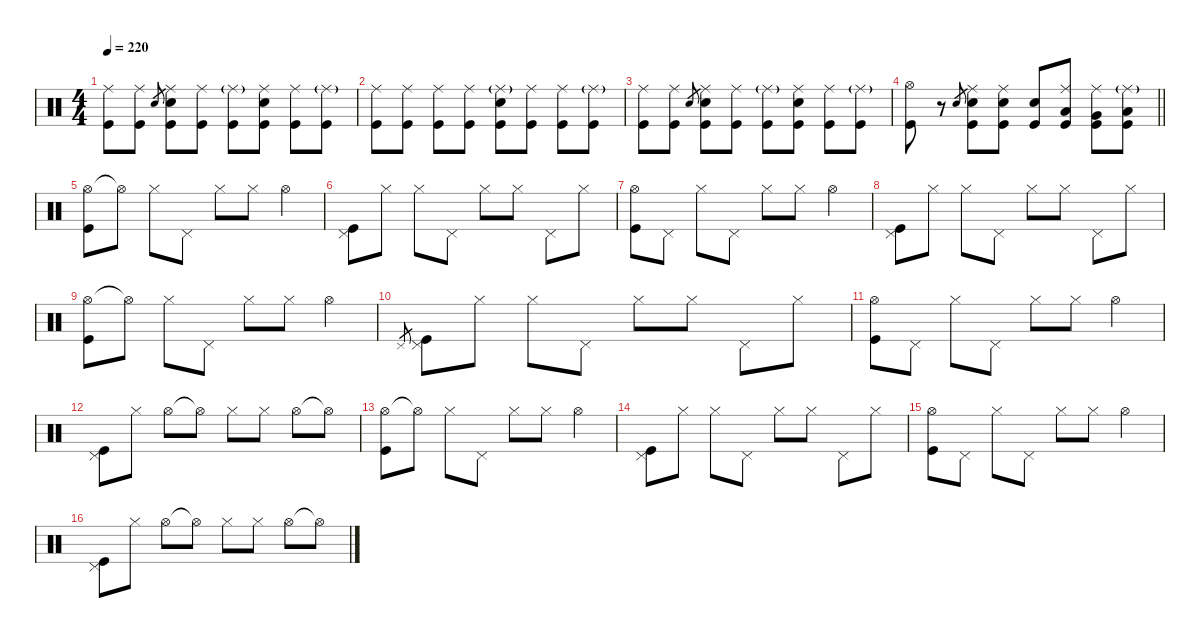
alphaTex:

\defaultSystemsLayout 4
\hideDynamics
\bracketExtendMode nobrackets
\singleTrackTrackNamePolicy hidden
\multiTrackTrackNamePolicy hidden
\firstSystemTrackNameMode fullname
\firstSystemTrackNameOrientation horizontal
\otherSystemsTrackNameOrientation horizontal
\track ("Drums" "drm.") {instrument percussion}
\staff {score}
\articulation defaults
\ts (4 4)
\tempo 220
\clef neutral
\ks c
("Ride (middle)" "Kick (hit)").8{dy mf beam Down} ("Ride (middle)" "Kick (hit)").8{beam Down} "Electric Snare (hit)".8{gr dy mp beam Up} ("Ride (middle)" "Snare (hit) 2" "Kick (hit)").8{dy mf beam Down} ("Ride (middle)" "Kick (hit)").8{beam Down} ("Ride (middle)"{g} "Kick (hit)").8{dy f beam Down} ("Ride (middle)" "Snare (hit) 2" "Kick (hit)").8{dy mf beam Down} ("Ride (middle)" "Kick (hit)").8{beam Down} ("Ride (middle)"{g} "Kick (hit)").8{dy f beam Down} |
("Ride (middle)" "Kick (hit)").8{dy mf beam Down} ("Ride (middle)" "Kick (hit)").8{beam Down} ("Ride (middle)" "Kick (hit)").8{beam Down} ("Ride (middle)" "Kick (hit)").8{beam Down} ("Ride (middle)"{g} "Snare (hit) 2" "Kick (hit)").8{dy f beam Down} ("Ride (middle)" "Kick (hit)").8{dy mf beam Down} ("Ride (middle)" "Kick (hit)").8{beam Down} ("Ride (middle)"{g} "Kick (hit)").8{dy f beam Down} |
("Ride (middle)" "Kick (hit)").8{dy mf beam Down} ("Ride (middle)" "Kick (hit)").8{beam Down} "Electric Snare (hit)".8{gr dy mp beam Up} ("Ride (middle)" "Snare (hit) 2" "Kick (hit)").8{dy mf beam Down} ("Ride (middle)" "Kick (hit)").8{beam Down} ("Ride (middle)"{g} "Kick (hit)").8{dy f beam Down} ("Ride (middle)" "Snare (hit) 2" "Kick (hit)").8{dy mf beam Down} ("Ride (middle)" "Kick (hit)").8{beam Down} ("Ride (middle)"{g} "Kick (hit)").8{dy f beam Down} |
\barLineRight lightlight
("Hi-Hat (open)" "Kick (hit)").8{dy mf beam Down} r.8{beam Down} "Electric Snare (hit)".8{gr dy mp beam Up} ("Ride (middle)" "Snare (hit) 2" "Kick (hit)").8{dy mf beam Down} ("Ride (middle)" "Snare (hit) 2" "Kick (hit)").8{beam Down} ("Snare (hit) 2" "Kick (hit)").8{dy f beam Up} ("Ride (middle)" "Low Tom (hit)" "Kick (hit)").8{dy mf beam Up} ("Ride (middle)" "Very Low Tom (hit)" "Kick (hit)").8{beam Down} ("Ride (middle)"{g} "Low Floor Tom (hit)" "Kick (hit)").8{dy f beam Down} |
("Hi-Hat (open)" "Kick (hit)").8{dy mf beam Down} "Hi-Hat (open)"{t}.8{dy f beam Down} "Hi-Hat (closed)".8{dy mp beam Down} "Pedal Hi-Hat (hit)".8{beam Down} "Hi-Hat (closed)".8{beam Down} "Hi-Hat (closed)".8{beam Down} "Hi-Hat (open)".4{dy mf beam Down} |
("Pedal Hi-Hat (hit)" "Kick (hit)").8{beam Down} "Hi-Hat (closed)".8{dy mp beam Down} "Hi-Hat (closed)".8{beam Down} "Pedal Hi-Hat (hit)".8{dy mf beam Down} "Hi-Hat (closed)".8{dy mp beam Down} "Hi-Hat (closed)".8{beam Down} "Pedal Hi-Hat (hit)".8{dy mf beam Down} "Hi-Hat (closed)".8{dy mp beam Down} |
("Hi-Hat (open)" "Kick (hit)").8{dy mf beam Down} "Pedal Hi-Hat (hit)".8{beam Down} "Hi-Hat (closed)".8{dy mp beam Down} "Pedal Hi-Hat (hit)".8{beam Down} "Hi-Hat (closed)".8{beam Down} "Hi-Hat (closed)".8{beam Down} "Hi-Hat (open)".4{dy mf beam Down} |
("Pedal Hi-Hat (hit)" "Kick (hit)").8{beam Down} "Hi-Hat (closed)".8{dy mp beam Down} "Hi-Hat (closed)".8{beam Down} "Pedal Hi-Hat (hit)".8{dy mf beam Down} "Hi-Hat (closed)".8{dy mp beam Down} "Hi-Hat (closed)".8{beam Down} "Pedal Hi-Hat (hit)".8{dy mf beam Down} "Hi-Hat (closed)".8{dy mp beam Down} |
("Hi-Hat (open)" "Kick (hit)").8{dy mf beam Down} "Hi-Hat (open)"{t}.8{dy f beam Down} "Hi-Hat (closed)".8{dy mp beam Down} "Pedal Hi-Hat (hit)".8{beam Down} "Hi-Hat (closed)".8{beam Down} "Hi-Hat (closed)".8{beam Down} "Hi-Hat (open)".4{dy mf beam Down} |
"Pedal Hi-Hat (hit)".8{gr dy p beam Up} ("Pedal Hi-Hat (hit)" "Kick (hit)").8{dy mf beam Down} "Hi-Hat (closed)".8{dy mp beam Down} "Hi-Hat (closed)".8{beam Down} "Pedal Hi-Hat (hit)".8{dy mf beam Down} "Hi-Hat (closed)".8{dy mp beam Down} "Hi-Hat (closed)".8{beam Down} "Pedal Hi-Hat (hit)".8{dy mf beam Down} "Hi-Hat (closed)".8{dy mp beam Down} |
("Hi-Hat (open)" "Kick (hit)").8{dy mf beam Down} "Pedal Hi-Hat (hit)".8{beam Down} "Hi-Hat (closed)".8{dy mp beam Down} "Pedal Hi-Hat (hit)".8{beam Down} "Hi-Hat (closed)".8{beam Down} "Hi-Hat (closed)".8{beam Down} "Hi-Hat (open)".4{dy mf beam Down} |
("Pedal Hi-Hat (hit)" "Kick (hit)").8{beam Down} "Hi-Hat (closed)".8{dy mp beam Down} "Hi-Hat (open)".8{dy mf beam Down} "Hi-Hat (open)"{t}.8{dy f beam Down} "Hi-Hat (closed)".8{dy mp beam Down} "Hi-Hat (closed)".8{beam Down} "Hi-Hat (open)".8{dy mf beam Down} "Hi-Hat (open)"{t}.8{dy f beam Down} |
("Hi-Hat (open)" "Kick (hit)").8{dy mf beam Down} "Hi-Hat (open)"{t}.8{dy f beam Down} "Hi-Hat (closed)".8{dy mp beam Down} "Pedal Hi-Hat (hit)".8{beam Down} "Hi-Hat (closed)".8{beam Down} "Hi-Hat (closed)".8{beam Down} "Hi-Hat (open)".4{dy mf beam Down} |
("Pedal Hi-Hat (hit)" "Kick (hit)").8{beam Down} "Hi-Hat (closed)".8{dy mp beam Down} "Hi-Hat (closed)".8{beam Down} "Pedal Hi-Hat (hit)".8{dy mf beam Down} "Hi-Hat (closed)".8{dy mp beam Down} "Hi-Hat (closed)".8{beam Down} "Pedal Hi-Hat (hit)".8{dy mf beam Down} "Hi-Hat (closed)".8{dy mp beam Down} |
("Hi-Hat (open)" "Kick (hit)").8{dy mf beam Down} "Pedal Hi-Hat (hit)".8{beam Down} "Hi-Hat (closed)".8{dy mp beam Down} "Pedal Hi-Hat (hit)".8{beam Down} "Hi-Hat (closed)".8{beam Down} "Hi-Hat (closed)".8{beam Down} "Hi-Hat (open)".4{dy mf beam Down} |
("Pedal Hi-Hat (hit)" "Kick (hit)").8{beam Down} "Hi-Hat (closed)".8{dy mp beam Down} "Hi-Hat (open)".8{dy mf beam Down} "Hi-Hat (open)"{t}.8{dy f beam Down} "Hi-Hat (closed)".8{dy mp beam Down} "Hi-Hat (closed)".8{beam Down} "Hi-Hat (open)".8{dy mf beam Down} "Hi-Hat (open)"{t}.8{dy f beam Down}
